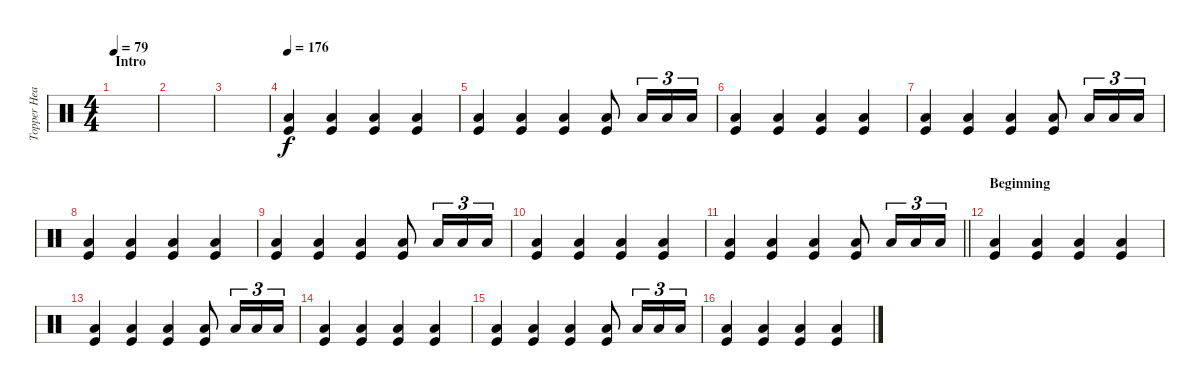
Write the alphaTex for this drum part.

\track ("Topper Headon - Drums" "Topper Hea") {instrument percussion}
\staff {score}
\articulation defaults
\ts (4 4)
\section ("" "Intro")
\tempo 79
\clef neutral
\ks c
|
|
|
\tempo 176
("Kick (hit)" "Low Floor Tom (hit)").4 ("Kick (hit)" "Low Floor Tom (hit)").4 ("Kick (hit)" "Low Floor Tom (hit)").4 ("Kick (hit)" "Low Floor Tom (hit)").4 |
("Kick (hit)" "Low Floor Tom (hit)").4 ("Kick (hit)" "Low Floor Tom (hit)").4 ("Kick (hit)" "Low Floor Tom (hit)").4 ("Kick (hit)" "Low Floor Tom (hit)").8 "Low Tom (hit)".16{tu (3 2)} "Low Tom (hit)".16{tu (3 2)} "Low Tom (hit)".16{tu (3 2)} |
("Kick (hit)" "Low Floor Tom (hit)").4 ("Kick (hit)" "Low Floor Tom (hit)").4 ("Kick (hit)" "Low Floor Tom (hit)").4 ("Kick (hit)" "Low Floor Tom (hit)").4 |
("Kick (hit)" "Low Floor Tom (hit)").4 ("Kick (hit)" "Low Floor Tom (hit)").4 ("Kick (hit)" "Low Floor Tom (hit)").4 ("Kick (hit)" "Low Floor Tom (hit)").8 "Low Tom (hit)".16{tu (3 2)} "Low Tom (hit)".16{tu (3 2)} "Low Tom (hit)".16{tu (3 2)} |
("Kick (hit)" "Low Floor Tom (hit)").4 ("Kick (hit)" "Low Floor Tom (hit)").4 ("Kick (hit)" "Low Floor Tom (hit)").4 ("Kick (hit)" "Low Floor Tom (hit)").4 |
("Kick (hit)" "Low Floor Tom (hit)").4 ("Kick (hit)" "Low Floor Tom (hit)").4 ("Kick (hit)" "Low Floor Tom (hit)").4 ("Kick (hit)" "Low Floor Tom (hit)").8 "Low Tom (hit)".16{tu (3 2)} "Low Tom (hit)".16{tu (3 2)} "Low Tom (hit)".16{tu (3 2)} |
("Kick (hit)" "Low Floor Tom (hit)").4 ("Kick (hit)" "Low Floor Tom (hit)").4 ("Kick (hit)" "Low Floor Tom (hit)").4 ("Kick (hit)" "Low Floor Tom (hit)").4 |
\barLineRight lightlight
("Kick (hit)" "Low Floor Tom (hit)").4 ("Kick (hit)" "Low Floor Tom (hit)").4 ("Kick (hit)" "Low Floor Tom (hit)").4 ("Kick (hit)" "Low Floor Tom (hit)").8 "Low Tom (hit)".16{tu (3 2)} "Low Tom (hit)".16{tu (3 2)} "Low Tom (hit)".16{tu (3 2)} |
\section ("" "Beginning")
("Kick (hit)" "Low Floor Tom (hit)").4 ("Kick (hit)" "Low Floor Tom (hit)").4 ("Kick (hit)" "Low Floor Tom (hit)").4 ("Kick (hit)" "Low Floor Tom (hit)").4 |
("Kick (hit)" "Low Floor Tom (hit)").4 ("Kick (hit)" "Low Floor Tom (hit)").4 ("Kick (hit)" "Low Floor Tom (hit)").4 ("Kick (hit)" "Low Floor Tom (hit)").8 "Low Tom (hit)".16{tu (3 2)} "Low Tom (hit)".16{tu (3 2)} "Low Tom (hit)".16{tu (3 2)} |
("Kick (hit)" "Low Floor Tom (hit)").4 ("Kick (hit)" "Low Floor Tom (hit)").4 ("Kick (hit)" "Low Floor Tom (hit)").4 ("Kick (hit)" "Low Floor Tom (hit)").4 |
("Kick (hit)" "Low Floor Tom (hit)").4 ("Kick (hit)" "Low Floor Tom (hit)").4 ("Kick (hit)" "Low Floor Tom (hit)").4 ("Kick (hit)" "Low Floor Tom (hit)").8 "Low Tom (hit)".16{tu (3 2)} "Low Tom (hit)".16{tu (3 2)} "Low Tom (hit)".16{tu (3 2)} |
("Kick (hit)" "Low Floor Tom (hit)").4 ("Kick (hit)" "Low Floor Tom (hit)").4 ("Kick (hit)" "Low Floor Tom (hit)").4 ("Kick (hit)" "Low Floor Tom (hit)").4
